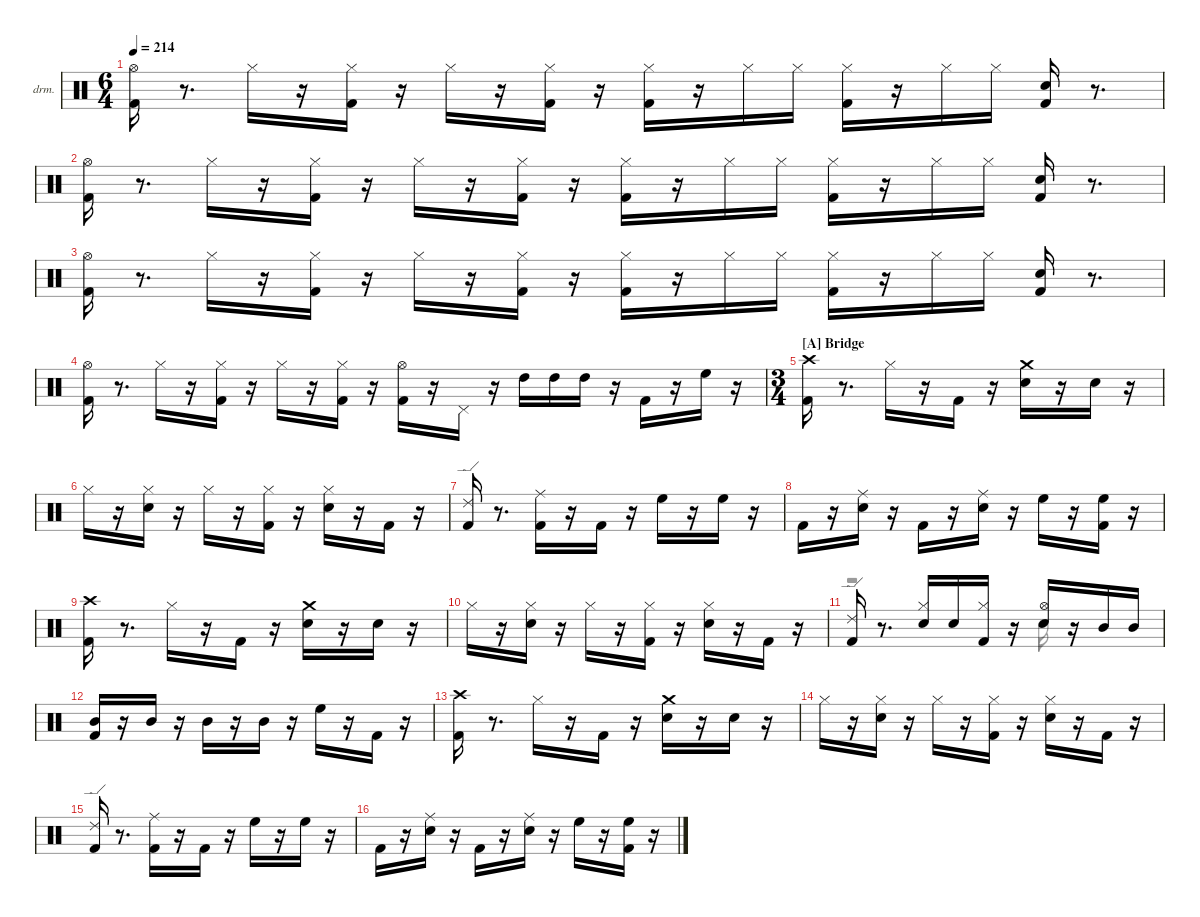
\hideDynamics
\bracketExtendMode nobrackets
\firstSystemTrackNameOrientation horizontal
\otherSystemsTrackNameOrientation horizontal
\track ("EZdrummer 3" "drm.") {instrument percussion}
\staff {score}
\articulation defaults
\voice
\ts (6 4)
\tempo 214
\clef neutral
\ks aminor
("Kick (hit) 2" "Hi-Hat (open)"{acc #}).16{dy ff} r.8{d} "Hi-Hat (closed)"{acc #}.16{dy f} r.16 ("Kick (hit) 2" "Hi-Hat (closed)"{acc #}).16{dy ff} r.16 "Hi-Hat (closed)"{acc #}.16 r.16 ("Kick (hit) 2" "Hi-Hat (closed)"{acc #}).16 r.16 ("Kick (hit) 2" "Hi-Hat (closed)"{acc #}).16 r.16 "Hi-Hat (closed)"{acc #}.16{dy f} "Hi-Hat (closed)"{acc #}.16{dy mp} ("Kick (hit) 2" "Hi-Hat (closed)"{acc #}).16{dy ff} r.16 "Hi-Hat (closed)"{acc #}.16{dy f} "Hi-Hat (closed)"{acc #}.16{dy mf} ("Kick (hit) 2" "Snare (hit) 2").16{dy ff} r.8{d} |
("Kick (hit) 2" "Hi-Hat (open)"{acc #}).16 r.8{d} "Hi-Hat (closed)"{acc #}.16{dy f} r.16 ("Kick (hit) 2" "Hi-Hat (closed)"{acc #}).16{dy ff} r.16 "Hi-Hat (closed)"{acc #}.16 r.16 ("Kick (hit) 2" "Hi-Hat (closed)"{acc #}).16 r.16 ("Kick (hit) 2" "Hi-Hat (closed)"{acc #}).16 r.16 "Hi-Hat (closed)"{acc #}.16{dy f} "Hi-Hat (closed)"{acc #}.16{dy mp} ("Kick (hit) 2" "Hi-Hat (closed)"{acc #}).16{dy ff} r.16 "Hi-Hat (closed)"{acc #}.16{dy f} "Hi-Hat (closed)"{acc #}.16{dy mf} ("Kick (hit) 2" "Snare (hit) 2").16{dy ff} r.8{d} |
("Kick (hit) 2" "Hi-Hat (open)"{acc #}).16 r.8{d} "Hi-Hat (closed)"{acc #}.16{dy f} r.16 ("Kick (hit) 2" "Hi-Hat (closed)"{acc #}).16{dy ff} r.16 "Hi-Hat (closed)"{acc #}.16 r.16 ("Kick (hit) 2" "Hi-Hat (closed)"{acc #}).16 r.16 ("Kick (hit) 2" "Hi-Hat (closed)"{acc #}).16 r.16 "Hi-Hat (closed)"{acc #}.16{dy f} "Hi-Hat (closed)"{acc #}.16{dy mp} ("Kick (hit) 2" "Hi-Hat (closed)"{acc #}).16{dy ff} r.16 "Hi-Hat (closed)"{acc #}.16{dy f} "Hi-Hat (closed)"{acc #}.16{dy mf} ("Kick (hit) 2" "Snare (hit) 2").16{dy ff} r.8{d} |
("Kick (hit) 2" "Hi-Hat (open)"{acc #}).16 r.8{d} "Hi-Hat (closed)"{acc #}.16{dy f} r.16 ("Kick (hit) 2" "Hi-Hat (closed)"{acc #}).16{dy ff} r.16 "Hi-Hat (closed)"{acc #}.16 r.16 ("Kick (hit) 2" "Hi-Hat (closed)"{acc #}).16 r.16 ("Kick (hit) 2" "Hi-Hat (open)"{acc #}).16 r.16 "Pedal Hi-Hat (hit)"{acc #}.16 r.16 "High Tom (hit)".16{dy f} "High Tom (hit)".16{dy mp} "High Tom (hit)".16{dy fff} r.16 "Kick (hit) 2".16{dy ff} r.16 "High Floor Tom (hit)".16{dy fff} r.16 |
\ts (3 4)
\section ("A" "Bridge")
("Kick (hit) 2" "Crash high (hit)"{acc #}).16 r.8{d} "Hi-Hat (closed)"{acc #}.16{dy f} r.16 "Kick (hit) 2".16 r.16 ("Snare (hit) 2" "Crash medium (hit)").16 r.16 "Snare (hit) 2".16{dy pp} r.16 |
"Hi-Hat (closed)"{acc #}.16{dy ff} r.16 ("Snare (hit) 2" "Hi-Hat (closed)"{acc #}).16{dy f} r.16 "Hi-Hat (closed)"{acc #}.16 r.16 ("Kick (hit) 2" "Hi-Hat (closed)"{acc #}).16 r.16 ("Snare (hit) 2" "Hi-Hat (closed)"{acc #}).16 r.16 "Kick (hit) 2".16{dy pp} r.16 |
("Kick (hit) 2" "Ride (edge) 2").16{dy fff} r.8{d} ("Kick (hit) 2" "Ride (middle)"{acc #}).16{dy mf} r.16 "Kick (hit) 2".16{dy fff} r.16 "High Floor Tom (hit)".16 r.16 "High Floor Tom (hit)".16{dy ff} r.16 |
"Kick (hit) 2".16 r.16 ("Snare (hit) 2" "Ride (middle)"{acc #}).16{dy f} r.16 "Kick (hit) 2".16{dy ff} r.16 ("Snare (hit) 2" "Ride (middle)"{acc #}).16 r.16 "High Floor Tom (hit)".16{dy f} r.16 ("Kick (hit) 2" "High Floor Tom (hit)").16{dy mf} r.16 |
("Kick (hit) 2" "Crash high (hit)"{acc #}).16{dy ff} r.8{d} "Hi-Hat (closed)"{acc #}.16{dy f} r.16 "Kick (hit) 2".16 r.16 ("Snare (hit) 2" "Crash medium (hit)").16 r.16 "Snare (hit) 2".16{dy pp} r.16 |
"Hi-Hat (closed)"{acc #}.16{dy ff} r.16 ("Snare (hit) 2" "Hi-Hat (closed)"{acc #}).16{dy f} r.16 "Hi-Hat (closed)"{acc #}.16 r.16 ("Kick (hit) 2" "Hi-Hat (closed)"{acc #}).16 r.16 ("Snare (hit) 2" "Hi-Hat (closed)"{acc #}).16 r.16 "Kick (hit) 2".16{dy pp} r.16 |
("Kick (hit) 2" "Ride (edge) 2").16{dy ff} r.8{d} ("Snare (hit) 2" "Hi-Hat (closed)"{acc #}).16{dy p} "Snare (hit) 2".16 ("Kick (hit) 2" "Hi-Hat (closed)"{acc #}).16{dy mf} r.16 ("Snare (hit) 2" "Hi-Hat (open)"{acc #}).16 r.16 "Mid Tom (hit)".16{dy mp} "Mid Tom (hit)".16{dy pp} |
("Kick (hit) 2" "Mid Tom (hit)").16{dy mf} r.16 "Mid Tom (hit)".16 r.16 "Mid Tom (hit)".16{dy ff} r.16 "Mid Tom (hit)".16{dy f} r.16 "High Floor Tom (hit)".16{dy ff} r.16 "Kick (hit) 2".16{dy mf} r.16 |
("Kick (hit) 2" "Crash high (hit)"{acc #}).16{dy fff} r.8{d} "Hi-Hat (closed)"{acc #}.16{dy f} r.16 "Kick (hit) 2".16 r.16 ("Snare (hit) 2" "Crash medium (hit)").16 r.16 "Snare (hit) 2".16{dy pp} r.16 |
"Hi-Hat (closed)"{acc #}.16{dy ff} r.16 ("Snare (hit) 2" "Hi-Hat (closed)"{acc #}).16{dy f} r.16 "Hi-Hat (closed)"{acc #}.16 r.16 ("Kick (hit) 2" "Hi-Hat (closed)"{acc #}).16 r.16 ("Snare (hit) 2" "Hi-Hat (closed)"{acc #}).16 r.16 "Kick (hit) 2".16{dy pp} r.16 |
("Kick (hit) 2" "Ride (edge) 2").16{dy fff} r.8{d} ("Kick (hit) 2" "Ride (middle)"{acc #}).16{dy mf} r.16 "Kick (hit) 2".16{dy fff} r.16 "High Floor Tom (hit)".16 r.16 "High Floor Tom (hit)".16{dy ff} r.16 |
"Kick (hit) 2".16 r.16 ("Snare (hit) 2" "Ride (middle)"{acc #}).16{dy f} r.16 "Kick (hit) 2".16{dy ff} r.16 ("Snare (hit) 2" "Ride (middle)"{acc #}).16 r.16 "High Floor Tom (hit)".16{dy f} r.16 ("Kick (hit) 2" "High Floor Tom (hit)").16{dy mf} r.16
\voice
\clef neutral
\ottava regular
\simile none
\ks aminor
|
|
|
|
|
|
|
|
|
|
r.2 "Snare (hit) 2".16 |
|
|
|
|
